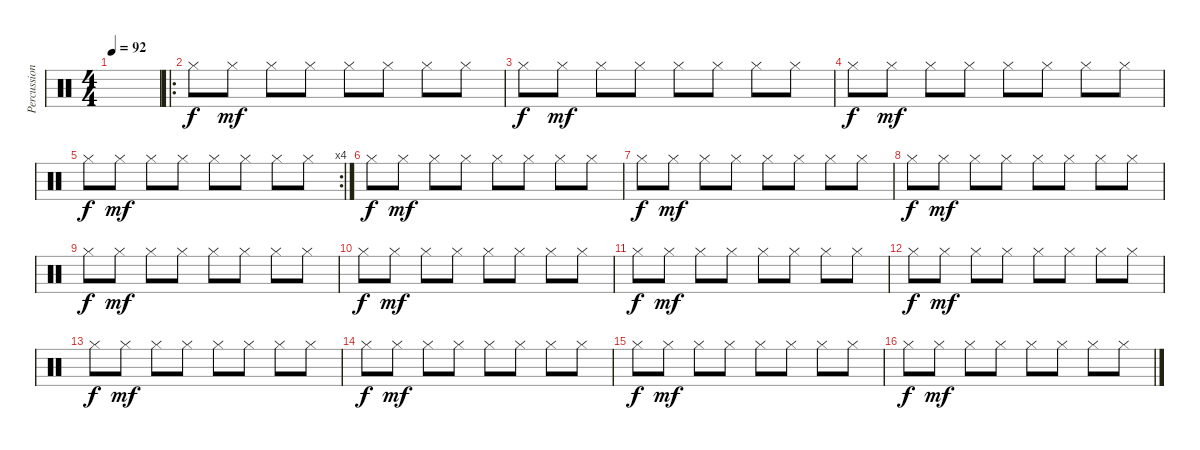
\track ("Percussion" "Percussion") {instrument percussion}
\staff {score}
\articulation defaults
\ts (4 4)
\tempo 92
\clef neutral
\ks c
|
\ro "Hi-Hat (closed)".8{dy f} "Hi-Hat (closed)".8{dy mf} "Hi-Hat (closed)".8 "Hi-Hat (closed)".8 "Hi-Hat (closed)".8 "Hi-Hat (closed)".8 "Hi-Hat (closed)".8 "Hi-Hat (closed)".8
|
"Hi-Hat (closed)".8{dy f} "Hi-Hat (closed)".8{dy mf} "Hi-Hat (closed)".8 "Hi-Hat (closed)".8 "Hi-Hat (closed)".8 "Hi-Hat (closed)".8 "Hi-Hat (closed)".8 "Hi-Hat (closed)".8 |
"Hi-Hat (closed)".8{dy f} "Hi-Hat (closed)".8{dy mf} "Hi-Hat (closed)".8 "Hi-Hat (closed)".8 "Hi-Hat (closed)".8 "Hi-Hat (closed)".8 "Hi-Hat (closed)".8 "Hi-Hat (closed)".8 |
\rc 4 "Hi-Hat (closed)".8{dy f} "Hi-Hat (closed)".8{dy mf} "Hi-Hat (closed)".8 "Hi-Hat (closed)".8 "Hi-Hat (closed)".8 "Hi-Hat (closed)".8 "Hi-Hat (closed)".8 "Hi-Hat (closed)".8
|
"Hi-Hat (closed)".8{dy f} "Hi-Hat (closed)".8{dy mf} "Hi-Hat (closed)".8 "Hi-Hat (closed)".8 "Hi-Hat (closed)".8 "Hi-Hat (closed)".8 "Hi-Hat (closed)".8 "Hi-Hat (closed)".8 |
"Hi-Hat (closed)".8{dy f} "Hi-Hat (closed)".8{dy mf} "Hi-Hat (closed)".8 "Hi-Hat (closed)".8 "Hi-Hat (closed)".8 "Hi-Hat (closed)".8 "Hi-Hat (closed)".8 "Hi-Hat (closed)".8 |
"Hi-Hat (closed)".8{dy f} "Hi-Hat (closed)".8{dy mf} "Hi-Hat (closed)".8 "Hi-Hat (closed)".8 "Hi-Hat (closed)".8 "Hi-Hat (closed)".8 "Hi-Hat (closed)".8 "Hi-Hat (closed)".8 |
"Hi-Hat (closed)".8{dy f} "Hi-Hat (closed)".8{dy mf} "Hi-Hat (closed)".8 "Hi-Hat (closed)".8 "Hi-Hat (closed)".8 "Hi-Hat (closed)".8 "Hi-Hat (closed)".8 "Hi-Hat (closed)".8 |
"Hi-Hat (closed)".8{dy f} "Hi-Hat (closed)".8{dy mf} "Hi-Hat (closed)".8 "Hi-Hat (closed)".8 "Hi-Hat (closed)".8 "Hi-Hat (closed)".8 "Hi-Hat (closed)".8 "Hi-Hat (closed)".8 |
"Hi-Hat (closed)".8{dy f} "Hi-Hat (closed)".8{dy mf} "Hi-Hat (closed)".8 "Hi-Hat (closed)".8 "Hi-Hat (closed)".8 "Hi-Hat (closed)".8 "Hi-Hat (closed)".8 "Hi-Hat (closed)".8 |
"Hi-Hat (closed)".8{dy f} "Hi-Hat (closed)".8{dy mf} "Hi-Hat (closed)".8 "Hi-Hat (closed)".8 "Hi-Hat (closed)".8 "Hi-Hat (closed)".8 "Hi-Hat (closed)".8 "Hi-Hat (closed)".8 |
"Hi-Hat (closed)".8{dy f} "Hi-Hat (closed)".8{dy mf} "Hi-Hat (closed)".8 "Hi-Hat (closed)".8 "Hi-Hat (closed)".8 "Hi-Hat (closed)".8 "Hi-Hat (closed)".8 "Hi-Hat (closed)".8 |
"Hi-Hat (closed)".8{dy f} "Hi-Hat (closed)".8{dy mf} "Hi-Hat (closed)".8 "Hi-Hat (closed)".8 "Hi-Hat (closed)".8 "Hi-Hat (closed)".8 "Hi-Hat (closed)".8 "Hi-Hat (closed)".8 |
"Hi-Hat (closed)".8{dy f} "Hi-Hat (closed)".8{dy mf} "Hi-Hat (closed)".8 "Hi-Hat (closed)".8 "Hi-Hat (closed)".8 "Hi-Hat (closed)".8 "Hi-Hat (closed)".8 "Hi-Hat (closed)".8 |
"Hi-Hat (closed)".8{dy f} "Hi-Hat (closed)".8{dy mf} "Hi-Hat (closed)".8 "Hi-Hat (closed)".8 "Hi-Hat (closed)".8 "Hi-Hat (closed)".8 "Hi-Hat (closed)".8 "Hi-Hat (closed)".8
